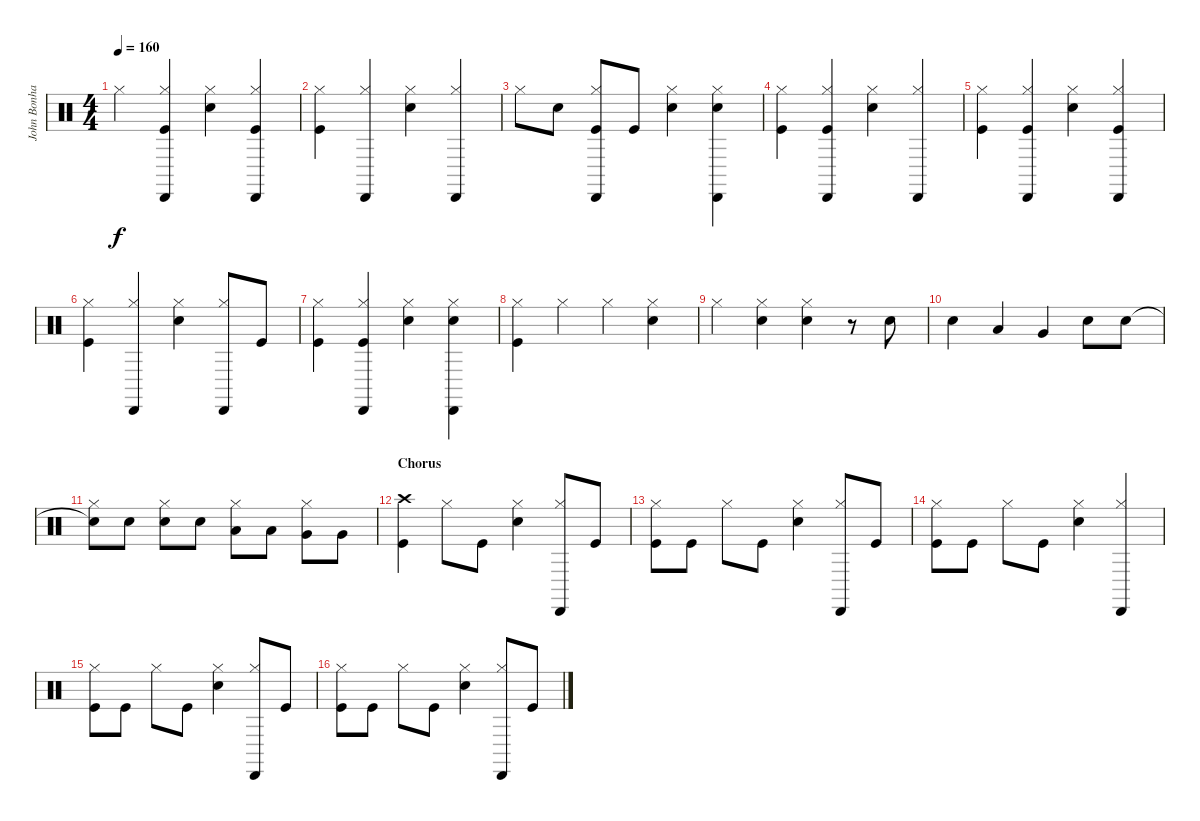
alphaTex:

\track ("John Bonham - Drums" "John Bonha") {instrument percussion}
\staff {score}
\articulation defaults
\ts (4 4)
\tempo 160
\clef neutral
\ks c "Hi-Hat (closed)".4{dy f}
("Hi-Hat (closed)" "Kick (hit)" "Cabasa (hit)").4 ("Hi-Hat (closed)" "Snare (hit) 2").4 ("Hi-Hat (closed)" "Kick (hit)" "Cabasa (hit)").4 |
("Kick (hit)" "Hi-Hat (closed)").4 ("Hi-Hat (closed)" "Cabasa (hit)").4 ("Snare (hit) 2" "Hi-Hat (closed)").4 ("Hi-Hat (closed)" "Cabasa (hit)").4 |
"Hi-Hat (closed)".8 "Snare (hit) 2".8 ("Kick (hit)" "Hi-Hat (closed)" "Cabasa (hit)").8 "Kick (hit)".8 ("Snare (hit) 2" "Hi-Hat (closed)").4 ("Snare (hit) 2" "Hi-Hat (closed)" "Cabasa (hit)").4 |
("Kick (hit)" "Hi-Hat (closed)").4 ("Kick (hit)" "Hi-Hat (closed)" "Cabasa (hit)").4 ("Snare (hit) 2" "Hi-Hat (closed)").4 ("Hi-Hat (closed)" "Cabasa (hit)").4 |
("Kick (hit)" "Hi-Hat (closed)").4 ("Kick (hit)" "Hi-Hat (closed)" "Cabasa (hit)").4 ("Snare (hit) 2" "Hi-Hat (closed)").4 ("Kick (hit)" "Hi-Hat (closed)" "Cabasa (hit)").4 |
("Kick (hit)" "Hi-Hat (closed)").4 ("Hi-Hat (closed)" "Cabasa (hit)").4 ("Snare (hit) 2" "Hi-Hat (closed)").4 ("Hi-Hat (closed)" "Cabasa (hit)").8 "Kick (hit)".8 |
("Kick (hit)" "Hi-Hat (closed)").4 ("Kick (hit)" "Hi-Hat (closed)" "Cabasa (hit)").4 ("Snare (hit) 2" "Hi-Hat (closed)").4 ("Snare (hit) 2" "Hi-Hat (closed)" "Cabasa (hit)").4 |
("Kick (hit)" "Hi-Hat (closed)").4 "Hi-Hat (closed)".4 "Hi-Hat (closed)".4 ("Snare (hit) 2" "Hi-Hat (closed)").4 |
"Hi-Hat (closed)".4 ("Snare (hit) 2" "Hi-Hat (closed)").4 ("Snare (hit) 2" "Hi-Hat (closed)").4 r.8 "Snare (hit) 2".8 |
"Snare (hit) 2".4 "Low Tom (hit)".4 "Very Low Tom (hit)".4 "Snare (hit) 2".8 "Snare (hit) 2".8 |
("Snare (hit) 2"{t} "Hi-Hat (closed)").8 "Snare (hit) 2".8 ("Hi-Hat (closed)" "Snare (hit) 2").8 "Snare (hit) 2".8 ("Hi-Hat (closed)" "Low Tom (hit)").8 "Low Tom (hit)".8 ("Hi-Hat (closed)" "Very Low Tom (hit)").8 "Very Low Tom (hit)".8 |
\section ("" "Chorus")
("Kick (hit)" "Crash high (hit)").4 "Hi-Hat (closed)".8 "Kick (hit)".8 ("Snare (hit) 2" "Hi-Hat (closed)").4 ("Hi-Hat (closed)" "Cabasa (hit)").8 "Kick (hit)".8 |
("Hi-Hat (closed)" "Kick (hit)").8 "Kick (hit)".8 "Hi-Hat (closed)".8 "Kick (hit)".8 ("Snare (hit) 2" "Hi-Hat (closed)").4 ("Hi-Hat (closed)" "Cabasa (hit)").8 "Kick (hit)".8 |
("Hi-Hat (closed)" "Kick (hit)").8 "Kick (hit)".8 "Hi-Hat (closed)".8 "Kick (hit)".8 ("Hi-Hat (closed)" "Snare (hit) 2").4 ("Hi-Hat (closed)" "Cabasa (hit)").4 |
("Hi-Hat (closed)" "Kick (hit)").8 "Kick (hit)".8 "Hi-Hat (closed)".8 "Kick (hit)".8 ("Hi-Hat (closed)" "Snare (hit) 2").4 ("Hi-Hat (closed)" "Cabasa (hit)").8 "Kick (hit)".8 |
("Hi-Hat (closed)" "Kick (hit)").8 "Kick (hit)".8 "Hi-Hat (closed)".8 "Kick (hit)".8 ("Hi-Hat (closed)" "Snare (hit) 2").4 ("Hi-Hat (closed)" "Cabasa (hit)").8 "Kick (hit)".8
